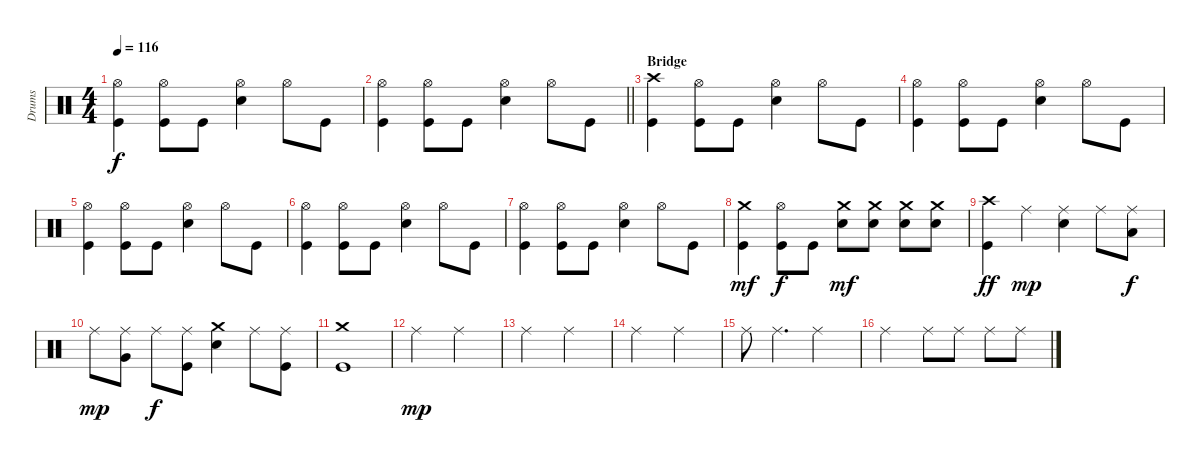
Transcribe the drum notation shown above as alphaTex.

\track ("Drums" "Drums") {instrument percussion}
\staff {score}
\articulation defaults
\ts (4 4)
\tempo 116
\clef neutral
\ks c
("Hi-Hat (open)" "Kick (hit)").4{dy f} ("Hi-Hat (open)" "Kick (hit)").8 "Kick (hit)".8 ("Hi-Hat (open)" "Electric Snare (hit)").4 "Hi-Hat (open)".8 "Kick (hit)".8 |
\barLineRight lightlight
("Hi-Hat (open)" "Kick (hit)").4 ("Hi-Hat (open)" "Kick (hit)").8 "Kick (hit)".8 ("Hi-Hat (open)" "Electric Snare (hit)").4 "Hi-Hat (open)".8 "Kick (hit)".8 |
\section ("" "Bridge")
("Crash high (hit)" "Kick (hit)").4 ("Hi-Hat (open)" "Kick (hit)").8 "Kick (hit)".8 ("Hi-Hat (open)" "Electric Snare (hit)").4 "Hi-Hat (open)".8 "Kick (hit)".8 |
("Hi-Hat (open)" "Kick (hit)").4 ("Hi-Hat (open)" "Kick (hit)").8 "Kick (hit)".8 ("Hi-Hat (open)" "Electric Snare (hit)").4 "Hi-Hat (open)".8 "Kick (hit)".8 |
("Hi-Hat (open)" "Kick (hit)").4 ("Hi-Hat (open)" "Kick (hit)").8 "Kick (hit)".8 ("Hi-Hat (open)" "Electric Snare (hit)").4 "Hi-Hat (open)".8 "Kick (hit)".8 |
("Hi-Hat (open)" "Kick (hit)").4 ("Hi-Hat (open)" "Kick (hit)").8 "Kick (hit)".8 ("Hi-Hat (open)" "Electric Snare (hit)").4 "Hi-Hat (open)".8 "Kick (hit)".8 |
("Hi-Hat (open)" "Kick (hit)").4 ("Hi-Hat (open)" "Kick (hit)").8 "Kick (hit)".8 ("Hi-Hat (open)" "Electric Snare (hit)").4 "Hi-Hat (open)".8 "Kick (hit)".8 |
("Crash medium (hit)" "Kick (hit)").4{dy mf} ("Hi-Hat (open)" "Kick (hit)").8{dy f} "Kick (hit)".8 ("Crash medium (hit)" "Electric Snare (hit)").8{dy mf} ("Crash medium (hit)" "Electric Snare (hit)").8 ("Crash medium (hit)" "Electric Snare (hit)").8 ("Crash medium (hit)" "Electric Snare (hit)").8 |
("Crash high (hit)" "Kick (hit)").4{dy ff} "Ride (middle)".4{dy mp} ("Ride (middle)" "Electric Snare (hit)").4 "Ride (middle)".8 ("Ride (middle)" "Low Tom (hit)").8{dy f} |
"Ride (middle)".8{dy mp} ("Ride (middle)" "Very Low Tom (hit)").8 "Ride (middle)".8{dy f} ("Ride (middle)" "Kick (hit)").8 ("Crash medium (hit)" "Electric Snare (hit)").4 "Ride (middle)".8 ("Ride (middle)" "Kick (hit)").8 |
("Crash medium (hit)" "Kick (hit)").1 |
"Ride (middle)".2{dy mp} "Ride (middle)".2 |
"Ride (middle)".2 "Ride (middle)".2 |
"Ride (middle)".2 "Ride (middle)".2 |
"Ride (middle)".8 "Ride (middle)".4{d} "Ride (middle)".2 |
"Ride (middle)".2 "Ride (middle)".8 "Ride (middle)".8 "Ride (middle)".8 "Ride (middle)".8
